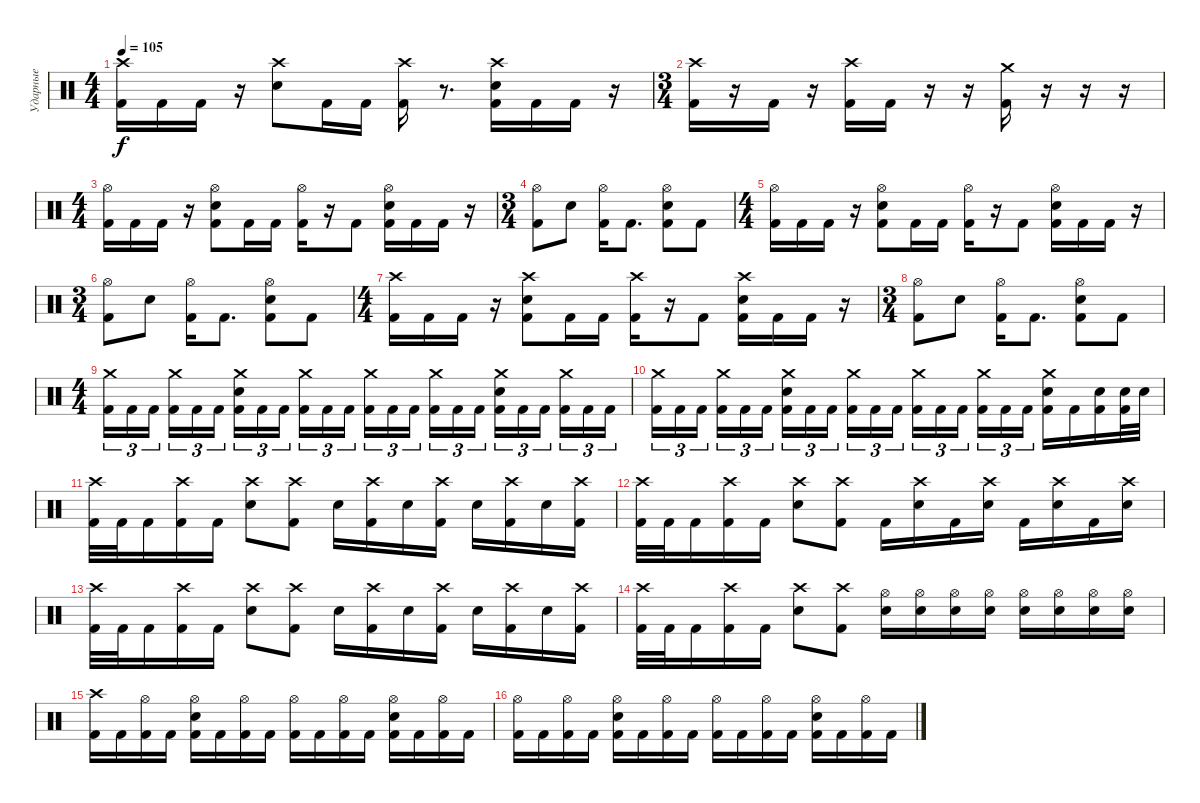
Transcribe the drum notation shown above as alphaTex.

\track ("Ударные" "Ударные") {instrument percussion}
\staff {score}
\articulation defaults
\ts (4 4)
\tempo 105
\clef neutral
\ks c
("Crash high (hit)" "Kick (hit) 2").16{dy f} "Kick (hit) 2".16 "Kick (hit) 2".16 r.16 ("Crash high (hit)" "Snare (hit) 2").8 "Kick (hit) 2".16 "Kick (hit) 2".16 ("Crash high (hit)" "Kick (hit) 2").16 r.8{d} ("Crash high (hit)" "Snare (hit) 2" "Kick (hit) 2").16 "Kick (hit) 2".16 "Kick (hit) 2".16 r.16 |
\ts (3 4)
("Crash high (hit)" "Kick (hit) 2").16 r.16 "Kick (hit) 2".16 r.16 ("Crash high (hit)" "Kick (hit) 2").16 "Kick (hit) 2".16 r.16 r.16 ("Crash medium (hit)" "Kick (hit) 2").16 r.16 r.16 r.16 |
\ts (4 4)
("Hi-Hat (open)" "Kick (hit) 2").16 "Kick (hit) 2".16 "Kick (hit) 2".16 r.16 ("Hi-Hat (open)" "Snare (hit) 2" "Kick (hit) 2").8 "Kick (hit) 2".16 "Kick (hit) 2".16 ("Hi-Hat (open)" "Kick (hit) 2").16 r.16 "Kick (hit) 2".8 ("Hi-Hat (open)" "Snare (hit) 2" "Kick (hit) 2").16 "Kick (hit) 2".16 "Kick (hit) 2".16 r.16 |
\ts (3 4)
("Hi-Hat (open)" "Kick (hit) 2").8 "Snare (hit) 2".8 ("Hi-Hat (open)" "Kick (hit) 2").16 "Kick (hit) 2".8{d} ("Hi-Hat (open)" "Snare (hit) 2" "Kick (hit) 2").8 "Kick (hit) 2".8 |
\ts (4 4)
("Hi-Hat (open)" "Kick (hit) 2").16 "Kick (hit) 2".16 "Kick (hit) 2".16 r.16 ("Hi-Hat (open)" "Snare (hit) 2" "Kick (hit) 2").8 "Kick (hit) 2".16 "Kick (hit) 2".16 ("Hi-Hat (open)" "Kick (hit) 2").16 r.16 "Kick (hit) 2".8 ("Hi-Hat (open)" "Snare (hit) 2" "Kick (hit) 2").16 "Kick (hit) 2".16 "Kick (hit) 2".16 r.16 |
\ts (3 4)
("Hi-Hat (open)" "Kick (hit) 2").8 "Snare (hit) 2".8 ("Hi-Hat (open)" "Kick (hit) 2").16 "Kick (hit) 2".8{d} ("Hi-Hat (open)" "Snare (hit) 2" "Kick (hit) 2").8 "Kick (hit) 2".8 |
\ts (4 4)
("Crash high (hit)" "Kick (hit) 2").16 "Kick (hit) 2".16 "Kick (hit) 2".16 r.16 ("Crash high (hit)" "Snare (hit) 2" "Kick (hit) 2").8 "Kick (hit) 2".16 "Kick (hit) 2".16 ("Crash high (hit)" "Kick (hit) 2").16 r.16 "Kick (hit) 2".8 ("Crash high (hit)" "Snare (hit) 2" "Kick (hit) 2").16 "Kick (hit) 2".16 "Kick (hit) 2".16 r.16 |
\ts (3 4)
("Hi-Hat (open)" "Kick (hit) 2").8 "Snare (hit) 2".8 ("Hi-Hat (open)" "Kick (hit) 2").16 "Kick (hit) 2".8{d} ("Hi-Hat (open)" "Snare (hit) 2" "Kick (hit) 2").8 "Kick (hit) 2".8 |
\ts (4 4)
("Crash medium (hit)" "Kick (hit) 2").16{tu (3 2)} "Kick (hit) 2".16{tu (3 2)} "Kick (hit) 2".16{tu (3 2) beam splitsecondary} ("Crash medium (hit)" "Kick (hit) 2").16{tu (3 2)} "Kick (hit) 2".16{tu (3 2)} "Kick (hit) 2".16{tu (3 2)} ("Crash medium (hit)" "Snare (hit) 2" "Kick (hit) 2").16{tu (3 2)} "Kick (hit) 2".16{tu (3 2)} "Kick (hit) 2".16{tu (3 2) beam splitsecondary} ("Crash medium (hit)" "Kick (hit) 2").16{tu (3 2)} "Kick (hit) 2".16{tu (3 2)} "Kick (hit) 2".16{tu (3 2)} ("Crash medium (hit)" "Kick (hit) 2").16{tu (3 2)} "Kick (hit) 2".16{tu (3 2)} "Kick (hit) 2".16{tu (3 2) beam splitsecondary} ("Crash medium (hit)" "Kick (hit) 2").16{tu (3 2)} "Kick (hit) 2".16{tu (3 2)} "Kick (hit) 2".16{tu (3 2)} ("Crash medium (hit)" "Snare (hit) 2" "Kick (hit) 2").16{tu (3 2)} "Kick (hit) 2".16{tu (3 2)} "Kick (hit) 2".16{tu (3 2) beam splitsecondary} ("Crash medium (hit)" "Kick (hit) 2").16{tu (3 2)} "Kick (hit) 2".16{tu (3 2)} "Kick (hit) 2".16{tu (3 2)} |
("Crash medium (hit)" "Kick (hit) 2").16{tu (3 2)} "Kick (hit) 2".16{tu (3 2)} "Kick (hit) 2".16{tu (3 2) beam splitsecondary} ("Crash medium (hit)" "Kick (hit) 2").16{tu (3 2)} "Kick (hit) 2".16{tu (3 2)} "Kick (hit) 2".16{tu (3 2)} ("Crash medium (hit)" "Snare (hit) 2" "Kick (hit) 2").16{tu (3 2)} "Kick (hit) 2".16{tu (3 2)} "Kick (hit) 2".16{tu (3 2) beam splitsecondary} ("Crash medium (hit)" "Kick (hit) 2").16{tu (3 2)} "Kick (hit) 2".16{tu (3 2)} "Kick (hit) 2".16{tu (3 2)} ("Crash medium (hit)" "Kick (hit) 2").16{tu (3 2)} "Kick (hit) 2".16{tu (3 2)} "Kick (hit) 2".16{tu (3 2) beam splitsecondary} ("Crash medium (hit)" "Kick (hit) 2").16{tu (3 2)} "Kick (hit) 2".16{tu (3 2)} "Kick (hit) 2".16{tu (3 2)} ("Crash medium (hit)" "Snare (hit) 2" "Kick (hit) 2").16 "Kick (hit) 2".16 ("Snare (hit) 2" "Kick (hit) 2").16 ("Snare (hit) 2" "Kick (hit) 2").32 "Snare (hit) 2".32 |
("Crash high (hit)" "Kick (hit) 2").32 "Kick (hit) 2".32 "Kick (hit) 2".16 ("Crash high (hit)" "Kick (hit) 2").16 "Kick (hit) 2".16 ("Crash high (hit)" "Snare (hit) 2").8 ("Crash high (hit)" "Kick (hit) 2").8 "Snare (hit) 2".16 ("Crash high (hit)" "Kick (hit) 2").16 "Snare (hit) 2".16 ("Crash high (hit)" "Kick (hit) 2").16 "Snare (hit) 2".16 ("Crash high (hit)" "Kick (hit) 2").16 "Snare (hit) 2".16 ("Crash high (hit)" "Kick (hit) 2").16 |
("Crash high (hit)" "Kick (hit) 2").32 "Kick (hit) 2".32 "Kick (hit) 2".16 ("Crash high (hit)" "Kick (hit) 2").16 "Kick (hit) 2".16 ("Crash high (hit)" "Snare (hit) 2").8 ("Crash high (hit)" "Kick (hit) 2").8 "Kick (hit) 2".16 ("Crash high (hit)" "Snare (hit) 2").16 "Kick (hit) 2".16 ("Crash high (hit)" "Snare (hit) 2").16 "Kick (hit) 2".16 ("Crash high (hit)" "Snare (hit) 2").16 "Kick (hit) 2".16 ("Crash high (hit)" "Snare (hit) 2").16 |
("Crash high (hit)" "Kick (hit) 2").32 "Kick (hit) 2".32 "Kick (hit) 2".16 ("Crash high (hit)" "Kick (hit) 2").16 "Kick (hit) 2".16 ("Crash high (hit)" "Snare (hit) 2").8 ("Crash high (hit)" "Kick (hit) 2").8 "Snare (hit) 2".16 ("Crash high (hit)" "Kick (hit) 2").16 "Snare (hit) 2".16 ("Crash high (hit)" "Kick (hit) 2").16 "Snare (hit) 2".16 ("Crash high (hit)" "Kick (hit) 2").16 "Snare (hit) 2".16 ("Crash high (hit)" "Kick (hit) 2").16 |
("Crash high (hit)" "Kick (hit) 2").32 "Kick (hit) 2".32 "Kick (hit) 2".16 ("Crash high (hit)" "Kick (hit) 2").16 "Kick (hit) 2".16 ("Crash high (hit)" "Snare (hit) 2").8 ("Crash high (hit)" "Kick (hit) 2").8 ("Hi-Hat (open)" "Snare (hit) 2").16 ("Hi-Hat (open)" "Snare (hit) 2").16 ("Hi-Hat (open)" "Snare (hit) 2").16 ("Hi-Hat (open)" "Snare (hit) 2").16 ("Hi-Hat (open)" "Snare (hit) 2").16 ("Hi-Hat (open)" "Snare (hit) 2").16 ("Hi-Hat (open)" "Snare (hit) 2").16 ("Hi-Hat (open)" "Snare (hit) 2").16 |
("Crash high (hit)" "Kick (hit) 2").16 "Kick (hit) 2".16 ("Hi-Hat (open)" "Kick (hit) 2").16 "Kick (hit) 2".16 ("Hi-Hat (open)" "Snare (hit) 2" "Kick (hit) 2").16 "Kick (hit) 2".16 ("Hi-Hat (open)" "Kick (hit) 2").16 "Kick (hit) 2".16 ("Hi-Hat (open)" "Kick (hit) 2").16 "Kick (hit) 2".16 ("Hi-Hat (open)" "Kick (hit) 2").16 "Kick (hit) 2".16 ("Hi-Hat (open)" "Snare (hit) 2" "Kick (hit) 2").16 "Kick (hit) 2".16 ("Hi-Hat (open)" "Kick (hit) 2").16 "Kick (hit) 2".16 |
("Hi-Hat (open)" "Kick (hit) 2").16 "Kick (hit) 2".16 ("Hi-Hat (open)" "Kick (hit) 2").16 "Kick (hit) 2".16 ("Hi-Hat (open)" "Snare (hit) 2" "Kick (hit) 2").16 "Kick (hit) 2".16 ("Hi-Hat (open)" "Kick (hit) 2").16 "Kick (hit) 2".16 ("Hi-Hat (open)" "Kick (hit) 2").16 "Kick (hit) 2".16 ("Hi-Hat (open)" "Kick (hit) 2").16 "Kick (hit) 2".16 ("Hi-Hat (open)" "Snare (hit) 2" "Kick (hit) 2").16 "Kick (hit) 2".16 ("Hi-Hat (open)" "Kick (hit) 2").16 "Kick (hit) 2".16
